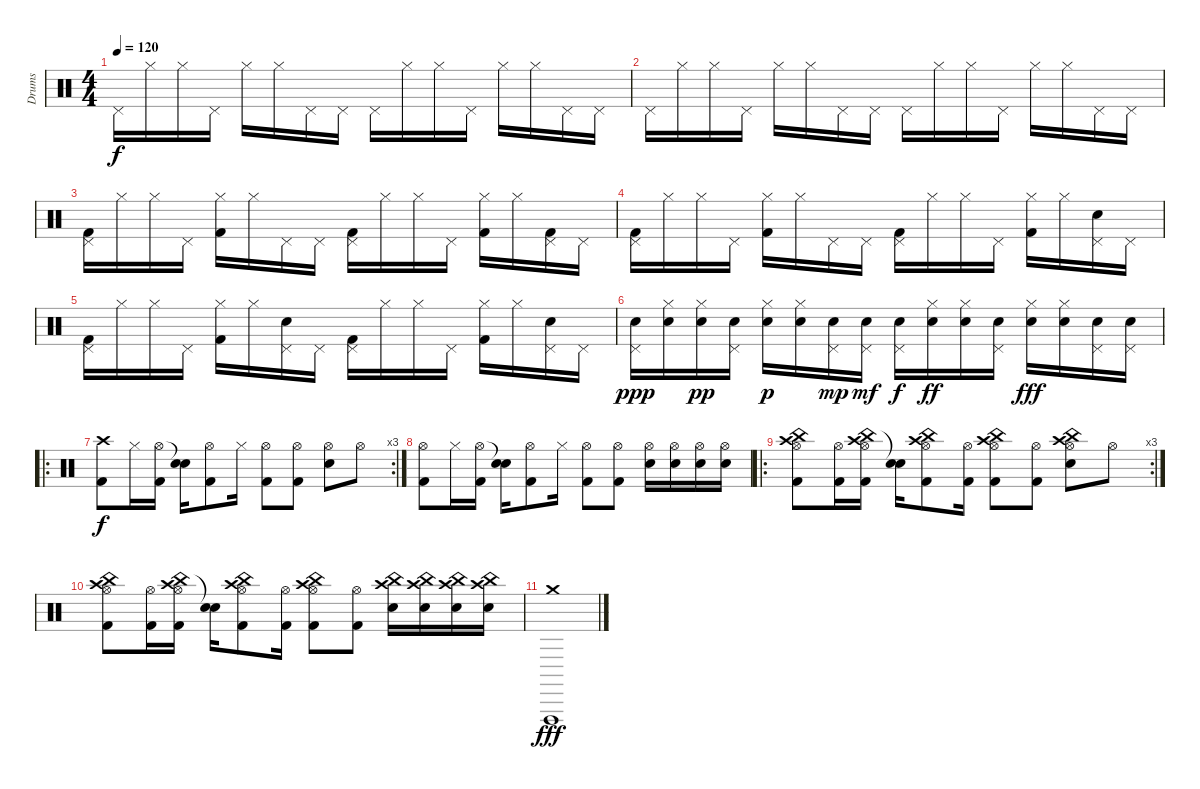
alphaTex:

\track ("Drums" "Drums") {instrument percussion}
\staff {score}
\articulation defaults
\ts (4 4)
\tempo 120
\clef neutral
\ks c "Pedal Hi-Hat (hit)".16{dy f} "Hi-Hat (closed)".16 "Hi-Hat (closed)".16 "Pedal Hi-Hat (hit)".16 "Hi-Hat (closed)".16 "Hi-Hat (closed)".16 "Pedal Hi-Hat (hit)".16 "Pedal Hi-Hat (hit)".16 "Pedal Hi-Hat (hit)".16 "Hi-Hat (closed)".16 "Hi-Hat (closed)".16 "Pedal Hi-Hat (hit)".16 "Hi-Hat (closed)".16 "Hi-Hat (closed)".16 "Pedal Hi-Hat (hit)".16 "Pedal Hi-Hat (hit)".16
|
"Pedal Hi-Hat (hit)".16 "Hi-Hat (closed)".16 "Hi-Hat (closed)".16 "Pedal Hi-Hat (hit)".16 "Hi-Hat (closed)".16 "Hi-Hat (closed)".16 "Pedal Hi-Hat (hit)".16 "Pedal Hi-Hat (hit)".16 "Pedal Hi-Hat (hit)".16 "Hi-Hat (closed)".16 "Hi-Hat (closed)".16 "Pedal Hi-Hat (hit)".16 "Hi-Hat (closed)".16 "Hi-Hat (closed)".16 "Pedal Hi-Hat (hit)".16 "Pedal Hi-Hat (hit)".16 |
("Pedal Hi-Hat (hit)" "Kick (hit) 2").16 "Hi-Hat (closed)".16 "Hi-Hat (closed)".16 "Pedal Hi-Hat (hit)".16 ("Hi-Hat (closed)" "Kick (hit) 2").16 "Hi-Hat (closed)".16 "Pedal Hi-Hat (hit)".16 "Pedal Hi-Hat (hit)".16 ("Pedal Hi-Hat (hit)" "Kick (hit) 2").16 "Hi-Hat (closed)".16 "Hi-Hat (closed)".16 "Pedal Hi-Hat (hit)".16 ("Hi-Hat (closed)" "Kick (hit) 2").16 "Hi-Hat (closed)".16 ("Pedal Hi-Hat (hit)" "Kick (hit) 2").16 "Pedal Hi-Hat (hit)".16 |
("Pedal Hi-Hat (hit)" "Kick (hit) 2").16 "Hi-Hat (closed)".16 "Hi-Hat (closed)".16 "Pedal Hi-Hat (hit)".16 ("Hi-Hat (closed)" "Kick (hit) 2").16 "Hi-Hat (closed)".16 "Pedal Hi-Hat (hit)".16 "Pedal Hi-Hat (hit)".16 ("Pedal Hi-Hat (hit)" "Kick (hit) 2").16 "Hi-Hat (closed)".16 "Hi-Hat (closed)".16 "Pedal Hi-Hat (hit)".16 ("Hi-Hat (closed)" "Kick (hit) 2").16 "Hi-Hat (closed)".16 ("Pedal Hi-Hat (hit)" "Electric Snare (hit)").16 "Pedal Hi-Hat (hit)".16 |
("Pedal Hi-Hat (hit)" "Kick (hit) 2").16 "Hi-Hat (closed)".16 "Hi-Hat (closed)".16 "Pedal Hi-Hat (hit)".16 ("Hi-Hat (closed)" "Kick (hit) 2").16 "Hi-Hat (closed)".16 ("Pedal Hi-Hat (hit)" "Electric Snare (hit)").16 "Pedal Hi-Hat (hit)".16 ("Pedal Hi-Hat (hit)" "Kick (hit) 2").16 "Hi-Hat (closed)".16 "Hi-Hat (closed)".16 "Pedal Hi-Hat (hit)".16 ("Hi-Hat (closed)" "Kick (hit) 2").16 "Hi-Hat (closed)".16 ("Pedal Hi-Hat (hit)" "Electric Snare (hit)").16 "Pedal Hi-Hat (hit)".16 |
("Pedal Hi-Hat (hit)" "Electric Snare (hit)").16{dy ppp} ("Hi-Hat (closed)" "Electric Snare (hit)").16 ("Hi-Hat (closed)" "Electric Snare (hit)").16{dy pp} ("Pedal Hi-Hat (hit)" "Electric Snare (hit)").16 ("Hi-Hat (closed)" "Electric Snare (hit)").16{dy p} ("Hi-Hat (closed)" "Electric Snare (hit)").16 ("Pedal Hi-Hat (hit)" "Electric Snare (hit)").16{dy mp} ("Pedal Hi-Hat (hit)" "Electric Snare (hit)").16{dy mf} ("Pedal Hi-Hat (hit)" "Electric Snare (hit)").16{dy f} ("Hi-Hat (closed)" "Electric Snare (hit)").16{dy ff} ("Hi-Hat (closed)" "Electric Snare (hit)").16 ("Pedal Hi-Hat (hit)" "Electric Snare (hit)").16 ("Hi-Hat (closed)" "Electric Snare (hit)").16{dy fff} ("Hi-Hat (closed)" "Electric Snare (hit)").16 ("Pedal Hi-Hat (hit)" "Electric Snare (hit)").16 ("Pedal Hi-Hat (hit)" "Electric Snare (hit)").16 |
\ro
\rc 3
("Crash high (hit)" "Kick (hit) 2").8{dy f} "Hi-Hat (closed)".16 ("Hi-Hat (open)" "Kick (hit) 2").16 ("Snare (hit)"{t} "Snare (hit) 2").16 ("Hi-Hat (open)" "Kick (hit) 2").8 "Hi-Hat (closed)".16 ("Hi-Hat (open)" "Kick (hit) 2").8 ("Hi-Hat (open)" "Kick (hit) 2").8 ("Hi-Hat (open)" "Snare (hit) 2").8 "Hi-Hat (open)".8 |
("Hi-Hat (open)" "Kick (hit) 2").8 "Hi-Hat (closed)".16 ("Hi-Hat (open)" "Kick (hit) 2").16 ("Snare (hit)"{t} "Snare (hit) 2").16 ("Hi-Hat (open)" "Kick (hit) 2").8 "Hi-Hat (closed)".16 ("Hi-Hat (open)" "Kick (hit) 2").8 ("Hi-Hat (open)" "Kick (hit) 2").8 ("Hi-Hat (open)" "Snare (hit) 2").16 ("Hi-Hat (open)" "Snare (hit) 2").16 ("Hi-Hat (open)" "Snare (hit) 2").16 ("Hi-Hat (open)" "Snare (hit) 2").16 |
\ro
\rc 3
("China (hit)" "Hi-Hat (open)" "Crash high (hit)" "Kick (hit) 2").8 ("Hi-Hat (open)" "Kick (hit) 2").16 ("China (hit)" "Hi-Hat (open)" "Crash high (hit)" "Kick (hit) 2").16 ("Snare (hit)"{t} "Snare (hit) 2").16 ("China (hit)" "Hi-Hat (open)" "Crash high (hit)" "Kick (hit) 2").8 ("Hi-Hat (open)" "Kick (hit) 2").16 ("China (hit)" "Hi-Hat (open)" "Crash high (hit)" "Kick (hit) 2").8 ("Hi-Hat (open)" "Kick (hit) 2").8 ("China (hit)" "Hi-Hat (open)" "Crash high (hit)" "Snare (hit) 2").8 "Hi-Hat (open)".8 |
("China (hit)" "Hi-Hat (open)" "Crash high (hit)" "Kick (hit) 2").8 ("Hi-Hat (open)" "Kick (hit) 2").16 ("China (hit)" "Hi-Hat (open)" "Crash high (hit)" "Kick (hit) 2").16 ("Snare (hit)"{t} "Snare (hit) 2").16 ("China (hit)" "Hi-Hat (open)" "Crash high (hit)" "Kick (hit) 2").8 ("Hi-Hat (open)" "Kick (hit) 2").16 ("China (hit)" "Hi-Hat (open)" "Crash high (hit)" "Kick (hit) 2").8 ("Hi-Hat (open)" "Kick (hit) 2").8 ("China (hit)" "Crash high (hit)" "Snare (hit) 2").16 ("China (hit)" "Crash high (hit)" "Snare (hit) 2").16 ("China (hit)" "Crash high (hit)" "Snare (hit) 2").16 ("China (hit)" "Crash high (hit)" "Snare (hit) 2").16 |
("Vibraslap (hit)" "Crash medium (hit)").1{dy fff}
